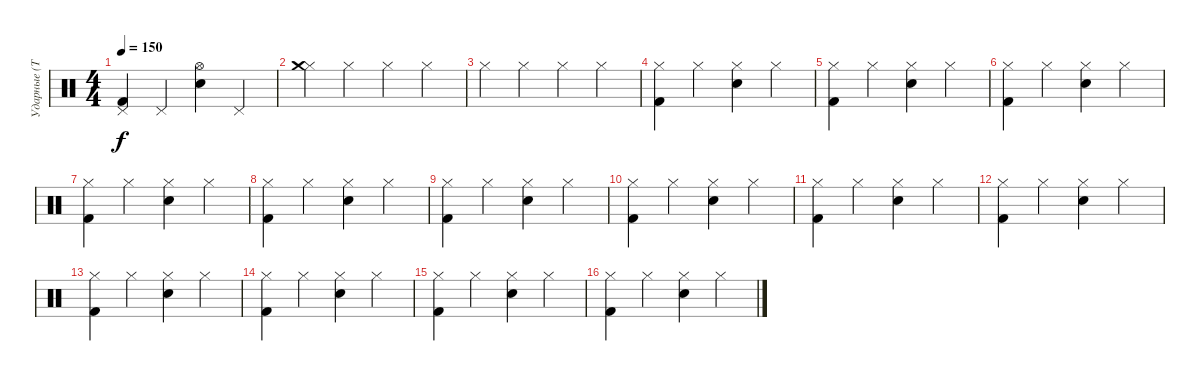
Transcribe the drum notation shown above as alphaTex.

\track ("Ударные (Тоша)" "Ударные (Т") {instrument percussion}
\staff {score}
\articulation defaults
\ts (4 4)
\tempo 150
\clef neutral
\ks c
("Pedal Hi-Hat (hit)" "Kick (hit) 2").4{dy f} "Pedal Hi-Hat (hit)".4 ("Hi-Hat (open)" "Electric Snare (hit)").4 "Pedal Hi-Hat (hit)".4 |
("Hi-Hat (closed)" "Crash medium (hit)").4 "Hi-Hat (closed)".4 "Hi-Hat (closed)".4 "Hi-Hat (closed)".4 |
"Hi-Hat (closed)".4 "Hi-Hat (closed)".4 "Hi-Hat (closed)".4 "Hi-Hat (closed)".4 |
("Hi-Hat (closed)" "Kick (hit) 2").4 "Hi-Hat (closed)".4 ("Hi-Hat (closed)" "Electric Snare (hit)").4 "Hi-Hat (closed)".4 |
("Hi-Hat (closed)" "Kick (hit) 2").4 "Hi-Hat (closed)".4 ("Hi-Hat (closed)" "Electric Snare (hit)").4 "Hi-Hat (closed)".4 |
("Hi-Hat (closed)" "Kick (hit) 2").4 "Hi-Hat (closed)".4 ("Hi-Hat (closed)" "Electric Snare (hit)").4 "Hi-Hat (closed)".4 |
("Hi-Hat (closed)" "Kick (hit) 2").4 "Hi-Hat (closed)".4 ("Hi-Hat (closed)" "Electric Snare (hit)").4 "Hi-Hat (closed)".4 |
("Hi-Hat (closed)" "Kick (hit) 2").4 "Hi-Hat (closed)".4 ("Hi-Hat (closed)" "Electric Snare (hit)").4 "Hi-Hat (closed)".4 |
("Hi-Hat (closed)" "Kick (hit) 2").4 "Hi-Hat (closed)".4 ("Hi-Hat (closed)" "Electric Snare (hit)").4 "Hi-Hat (closed)".4 |
("Hi-Hat (closed)" "Kick (hit) 2").4 "Hi-Hat (closed)".4 ("Hi-Hat (closed)" "Electric Snare (hit)").4 "Hi-Hat (closed)".4 |
("Hi-Hat (closed)" "Kick (hit) 2").4 "Hi-Hat (closed)".4 ("Hi-Hat (closed)" "Electric Snare (hit)").4 "Hi-Hat (closed)".4 |
("Hi-Hat (closed)" "Kick (hit) 2").4 "Hi-Hat (closed)".4 ("Hi-Hat (closed)" "Electric Snare (hit)").4 "Hi-Hat (closed)".4 |
("Hi-Hat (closed)" "Kick (hit) 2").4 "Hi-Hat (closed)".4 ("Hi-Hat (closed)" "Electric Snare (hit)").4 "Hi-Hat (closed)".4 |
("Hi-Hat (closed)" "Kick (hit) 2").4 "Hi-Hat (closed)".4 ("Hi-Hat (closed)" "Electric Snare (hit)").4 "Hi-Hat (closed)".4 |
("Hi-Hat (closed)" "Kick (hit) 2").4 "Hi-Hat (closed)".4 ("Hi-Hat (closed)" "Electric Snare (hit)").4 "Hi-Hat (closed)".4 |
("Hi-Hat (closed)" "Kick (hit) 2").4 "Hi-Hat (closed)".4 ("Hi-Hat (closed)" "Electric Snare (hit)").4 "Hi-Hat (closed)".4
